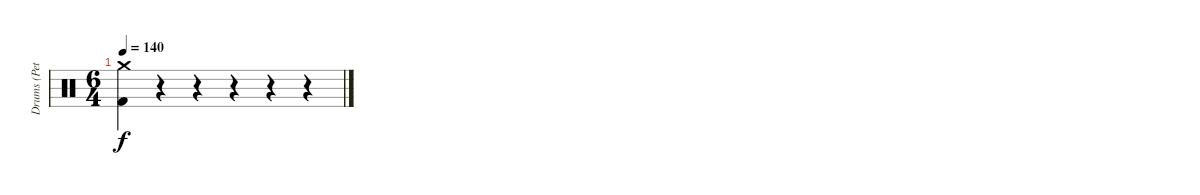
\track ("Drums (Peter)" "Drums (Pet") {instrument percussion}
\staff {score}
\articulation defaults
\ts (6 4)
\tempo 140
\clef neutral
\ks c
("Crash medium (hit)" "Kick (hit) 2").4{dy f} r.4 r.4 r.4 r.4 r.4
